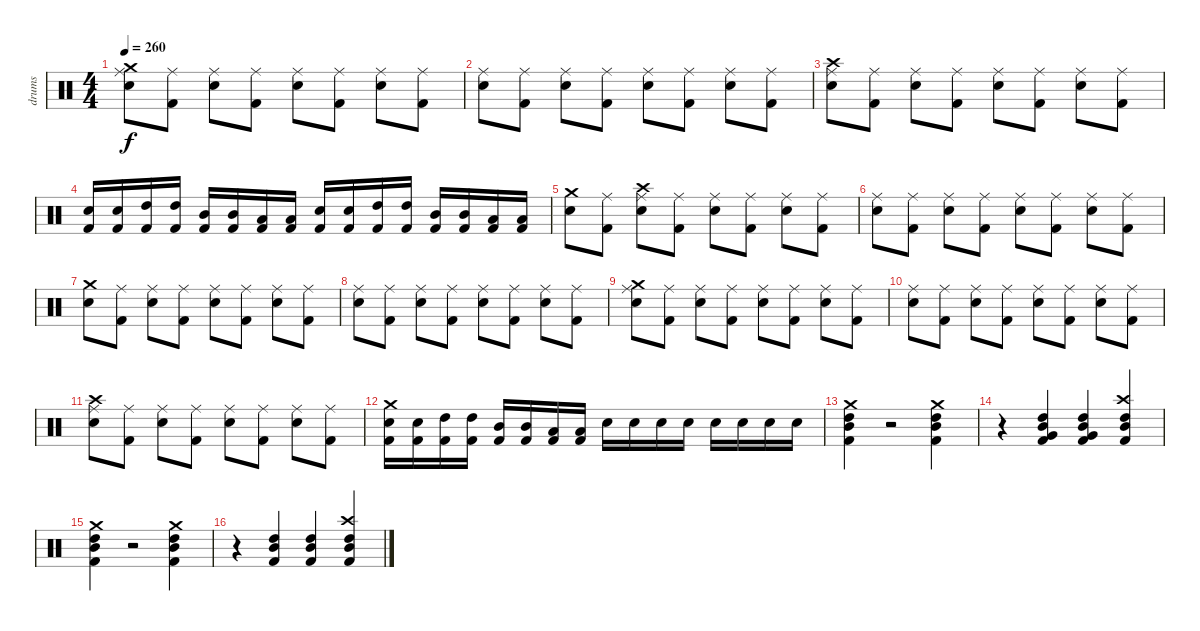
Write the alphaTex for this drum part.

\track ("drums" "drums") {instrument percussion}
\staff {score}
\articulation defaults
\ts (4 4)
\tempo 260
\clef neutral
\ks c
("Crash medium (hit)" "Ride (middle)" "Electric Snare (hit)").8{dy f} ("Ride (middle)" "Kick (hit) 2").8 ("Ride (middle)" "Electric Snare (hit)").8 ("Ride (middle)" "Kick (hit) 2").8 ("Ride (middle)" "Electric Snare (hit)").8 ("Ride (middle)" "Kick (hit) 2").8 ("Ride (middle)" "Electric Snare (hit)").8 ("Ride (middle)" "Kick (hit) 2").8 |
("Ride (middle)" "Electric Snare (hit)").8 ("Ride (middle)" "Kick (hit) 2").8 ("Ride (middle)" "Electric Snare (hit)").8 ("Ride (middle)" "Kick (hit) 2").8 ("Ride (middle)" "Electric Snare (hit)").8 ("Ride (middle)" "Kick (hit) 2").8 ("Ride (middle)" "Electric Snare (hit)").8 ("Ride (middle)" "Kick (hit) 2").8 |
("Crash high (hit)" "Ride (middle)" "Electric Snare (hit)").8 ("Ride (middle)" "Kick (hit) 2").8 ("Ride (middle)" "Electric Snare (hit)").8 ("Ride (middle)" "Kick (hit) 2").8 ("Ride (middle)" "Electric Snare (hit)").8 ("Ride (middle)" "Kick (hit) 2").8 ("Ride (middle)" "Electric Snare (hit)").8 ("Ride (middle)" "Kick (hit) 2").8 |
("Electric Snare (hit)" "Kick (hit) 2").16 ("Electric Snare (hit)" "Kick (hit) 2").16 ("High Tom (hit)" "Kick (hit) 2").16 ("High Tom (hit)" "Kick (hit) 2").16 ("Mid Tom (hit)" "Kick (hit) 2").16 ("Mid Tom (hit)" "Kick (hit) 2").16 ("Low Tom (hit)" "Kick (hit) 2").16 ("Low Tom (hit)" "Kick (hit) 2").16 ("Electric Snare (hit)" "Kick (hit) 2").16 ("Electric Snare (hit)" "Kick (hit) 2").16 ("High Tom (hit)" "Kick (hit) 2").16 ("High Tom (hit)" "Kick (hit) 2").16 ("Mid Tom (hit)" "Kick (hit) 2").16 ("Mid Tom (hit)" "Kick (hit) 2").16 ("Low Tom (hit)" "Kick (hit) 2").16 ("Low Tom (hit)" "Kick (hit) 2").16 |
("Crash medium (hit)" "Electric Snare (hit)").8 ("Ride (middle)" "Kick (hit) 2").8 ("Crash high (hit)" "Ride (middle)" "Electric Snare (hit)").8 ("Ride (middle)" "Kick (hit) 2").8 ("Ride (middle)" "Electric Snare (hit)").8 ("Ride (middle)" "Kick (hit) 2").8 ("Ride (middle)" "Electric Snare (hit)").8 ("Ride (middle)" "Kick (hit) 2").8 |
("Ride (middle)" "Electric Snare (hit)").8 ("Ride (middle)" "Kick (hit) 2").8 ("Ride (middle)" "Electric Snare (hit)").8 ("Ride (middle)" "Kick (hit) 2").8 ("Ride (middle)" "Electric Snare (hit)").8 ("Ride (middle)" "Kick (hit) 2").8 ("Ride (middle)" "Electric Snare (hit)").8 ("Ride (middle)" "Kick (hit) 2").8 |
("Crash medium (hit)" "Electric Snare (hit)").8 ("Ride (middle)" "Kick (hit) 2").8 ("Ride (middle)" "Electric Snare (hit)").8 ("Ride (middle)" "Kick (hit) 2").8 ("Ride (middle)" "Electric Snare (hit)").8 ("Ride (middle)" "Kick (hit) 2").8 ("Ride (middle)" "Electric Snare (hit)").8 ("Ride (middle)" "Kick (hit) 2").8 |
("Ride (middle)" "Electric Snare (hit)").8 ("Ride (middle)" "Kick (hit) 2").8 ("Ride (middle)" "Electric Snare (hit)").8 ("Ride (middle)" "Kick (hit) 2").8 ("Ride (middle)" "Electric Snare (hit)").8 ("Ride (middle)" "Kick (hit) 2").8 ("Ride (middle)" "Electric Snare (hit)").8 ("Ride (middle)" "Kick (hit) 2").8 |
("Crash medium (hit)" "Ride (middle)" "Electric Snare (hit)").8 ("Ride (middle)" "Kick (hit) 2").8 ("Ride (middle)" "Electric Snare (hit)").8 ("Ride (middle)" "Kick (hit) 2").8 ("Ride (middle)" "Electric Snare (hit)").8 ("Ride (middle)" "Kick (hit) 2").8 ("Ride (middle)" "Electric Snare (hit)").8 ("Ride (middle)" "Kick (hit) 2").8 |
("Ride (middle)" "Electric Snare (hit)").8 ("Ride (middle)" "Kick (hit) 2").8 ("Ride (middle)" "Electric Snare (hit)").8 ("Ride (middle)" "Kick (hit) 2").8 ("Ride (middle)" "Electric Snare (hit)").8 ("Ride (middle)" "Kick (hit) 2").8 ("Ride (middle)" "Electric Snare (hit)").8 ("Ride (middle)" "Kick (hit) 2").8 |
("Crash high (hit)" "Ride (middle)" "Electric Snare (hit)").8 ("Ride (middle)" "Kick (hit) 2").8 ("Ride (middle)" "Electric Snare (hit)").8 ("Ride (middle)" "Kick (hit) 2").8 ("Ride (middle)" "Electric Snare (hit)").8 ("Ride (middle)" "Kick (hit) 2").8 ("Ride (middle)" "Electric Snare (hit)").8 ("Ride (middle)" "Kick (hit) 2").8 |
("Crash medium (hit)" "Electric Snare (hit)" "Kick (hit) 2").16 ("Electric Snare (hit)" "Kick (hit) 2").16 ("High Tom (hit)" "Kick (hit) 2").16 ("High Tom (hit)" "Kick (hit) 2").16 ("Mid Tom (hit)" "Kick (hit) 2").16 ("Mid Tom (hit)" "Kick (hit) 2").16 ("Low Tom (hit)" "Kick (hit) 2").16 ("Low Tom (hit)" "Kick (hit) 2").16 "Electric Snare (hit)".16 "Electric Snare (hit)".16 "Electric Snare (hit)".16 "Electric Snare (hit)".16 "Electric Snare (hit)".16 "Electric Snare (hit)".16 "Electric Snare (hit)".16 "Electric Snare (hit)".16 |
("Crash medium (hit)" "Mid Tom (hit)" "High Tom (hit)" "Kick (hit) 2").4 r.2 ("Crash medium (hit)" "Mid Tom (hit)" "High Tom (hit)" "Kick (hit) 2").4 |
r.4 ("Very Low Tom (hit)" "Mid Tom (hit)" "High Tom (hit)" "Kick (hit) 2").4 ("Very Low Tom (hit)" "Mid Tom (hit)" "High Tom (hit)" "Kick (hit) 2").4 ("Crash high (hit)" "Mid Tom (hit)" "High Tom (hit)" "Kick (hit) 2").4 |
("Crash medium (hit)" "Mid Tom (hit)" "High Tom (hit)" "Kick (hit) 2").4 r.2 ("Crash medium (hit)" "Mid Tom (hit)" "High Tom (hit)" "Kick (hit) 2").4 |
r.4 ("Mid Tom (hit)" "High Tom (hit)" "Kick (hit) 2").4 ("Mid Tom (hit)" "High Tom (hit)" "Kick (hit) 2").4 ("Crash high (hit)" "Mid Tom (hit)" "High Tom (hit)" "Kick (hit) 2").4
